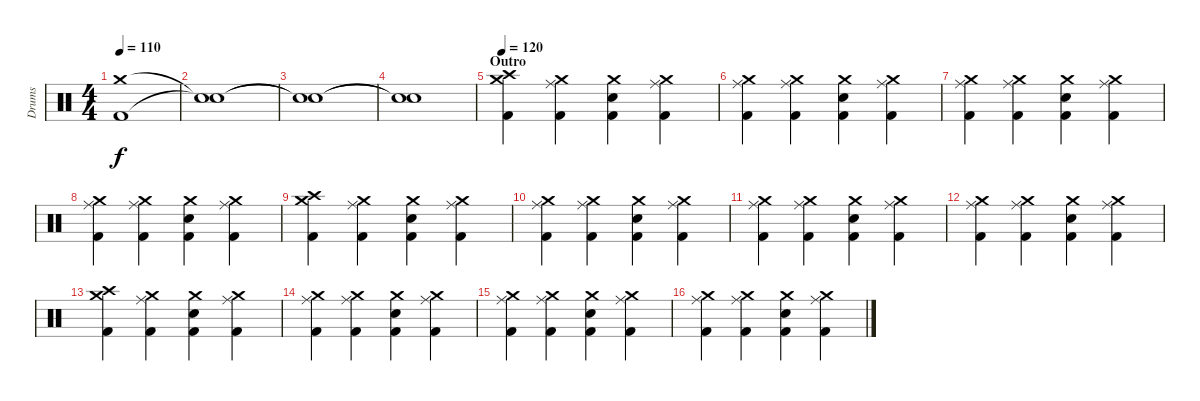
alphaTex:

\track ("Drums" "Drums") {instrument percussion}
\staff {score}
\articulation defaults
\ts (4 4)
\tempo 110
\clef neutral
\ks c
("Crash medium (hit)" "Kick (hit) 2").1{dy f} |
("Snare (hit)"{t} "Snare (hit)"{t}).1 |
("Snare (hit)"{t} "Snare (hit)"{t}).1 |
("Snare (hit)"{t} "Snare (hit)"{t}).1 |
\section ("" "Outro")
\tempo 120
("Crash medium (hit)" "Crash high (hit)" "Kick (hit) 2").4 ("Crash medium (hit)" "Ride (middle)" "Kick (hit) 2").4 ("Crash medium (hit)" "Snare (hit) 2" "Kick (hit) 2").4 ("Crash medium (hit)" "Ride (middle)" "Kick (hit) 2").4 |
("Crash medium (hit)" "Ride (middle)" "Kick (hit) 2").4 ("Crash medium (hit)" "Ride (middle)" "Kick (hit) 2").4 ("Crash medium (hit)" "Snare (hit) 2" "Kick (hit) 2").4 ("Crash medium (hit)" "Ride (middle)" "Kick (hit) 2").4 |
("Crash medium (hit)" "Ride (middle)" "Kick (hit) 2").4 ("Crash medium (hit)" "Ride (middle)" "Kick (hit) 2").4 ("Crash medium (hit)" "Snare (hit) 2" "Kick (hit) 2").4 ("Crash medium (hit)" "Ride (middle)" "Kick (hit) 2").4 |
("Crash medium (hit)" "Ride (middle)" "Kick (hit) 2").4 ("Crash medium (hit)" "Ride (middle)" "Kick (hit) 2").4 ("Crash medium (hit)" "Snare (hit) 2" "Kick (hit) 2").4 ("Crash medium (hit)" "Ride (middle)" "Kick (hit) 2").4 |
("Crash medium (hit)" "Crash high (hit)" "Kick (hit) 2").4 ("Crash medium (hit)" "Ride (middle)" "Kick (hit) 2").4 ("Crash medium (hit)" "Snare (hit) 2" "Kick (hit) 2").4 ("Crash medium (hit)" "Ride (middle)" "Kick (hit) 2").4 |
("Crash medium (hit)" "Ride (middle)" "Kick (hit) 2").4 ("Crash medium (hit)" "Ride (middle)" "Kick (hit) 2").4 ("Crash medium (hit)" "Snare (hit) 2" "Kick (hit) 2").4 ("Crash medium (hit)" "Ride (middle)" "Kick (hit) 2").4 |
("Crash medium (hit)" "Ride (middle)" "Kick (hit) 2").4 ("Crash medium (hit)" "Ride (middle)" "Kick (hit) 2").4 ("Crash medium (hit)" "Snare (hit) 2" "Kick (hit) 2").4 ("Crash medium (hit)" "Ride (middle)" "Kick (hit) 2").4 |
("Crash medium (hit)" "Ride (middle)" "Kick (hit) 2").4 ("Crash medium (hit)" "Ride (middle)" "Kick (hit) 2").4 ("Crash medium (hit)" "Snare (hit) 2" "Kick (hit) 2").4 ("Crash medium (hit)" "Ride (middle)" "Kick (hit) 2").4 |
("Crash medium (hit)" "Crash high (hit)" "Kick (hit) 2").4 ("Crash medium (hit)" "Ride (middle)" "Kick (hit) 2").4 ("Crash medium (hit)" "Snare (hit) 2" "Kick (hit) 2").4 ("Crash medium (hit)" "Ride (middle)" "Kick (hit) 2").4 |
("Crash medium (hit)" "Ride (middle)" "Kick (hit) 2").4 ("Crash medium (hit)" "Ride (middle)" "Kick (hit) 2").4 ("Crash medium (hit)" "Snare (hit) 2" "Kick (hit) 2").4 ("Crash medium (hit)" "Ride (middle)" "Kick (hit) 2").4 |
("Crash medium (hit)" "Ride (middle)" "Kick (hit) 2").4 ("Crash medium (hit)" "Ride (middle)" "Kick (hit) 2").4 ("Crash medium (hit)" "Snare (hit) 2" "Kick (hit) 2").4 ("Crash medium (hit)" "Ride (middle)" "Kick (hit) 2").4 |
("Crash medium (hit)" "Ride (middle)" "Kick (hit) 2").4 ("Crash medium (hit)" "Ride (middle)" "Kick (hit) 2").4 ("Crash medium (hit)" "Snare (hit) 2" "Kick (hit) 2").4 ("Crash medium (hit)" "Ride (middle)" "Kick (hit) 2").4
